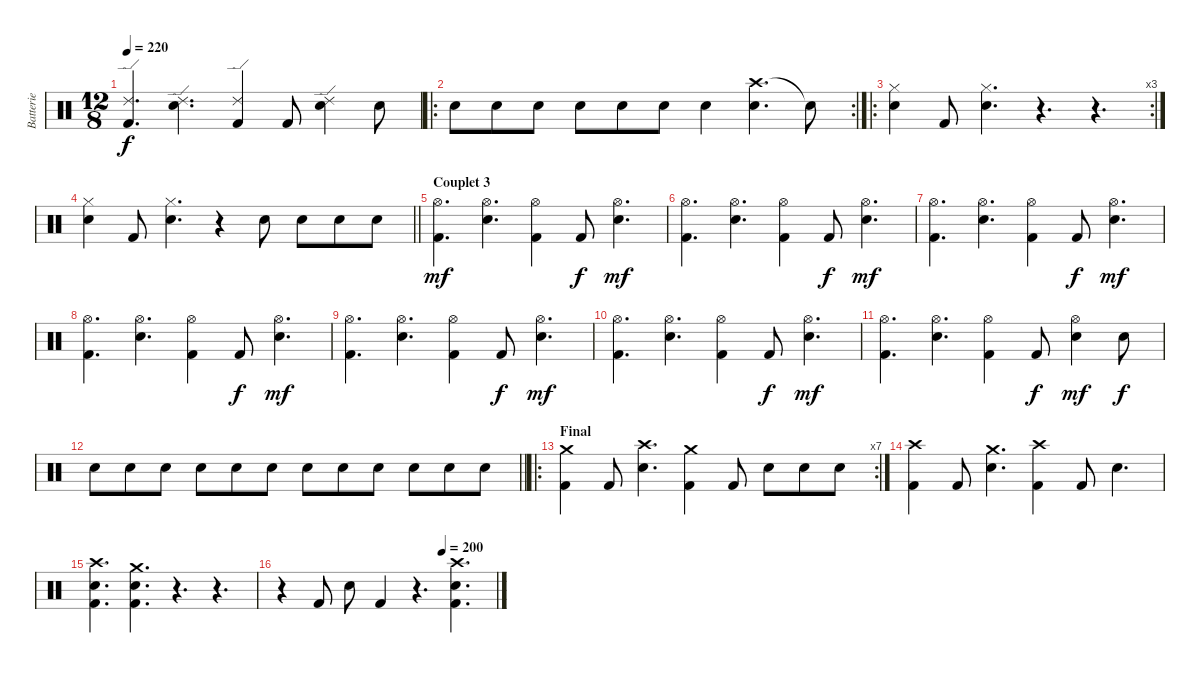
\track ("Batterie" "Batterie") {instrument percussion}
\staff {score}
\articulation defaults
\ts (12 8)
\tempo 220
\clef neutral
\ks c
("Ride (edge) 2" "Kick (hit) 2").4{d dy f} ("Ride (edge) 2" "Electric Snare (hit)").4{d} ("Ride (edge) 2" "Kick (hit) 2").4 "Kick (hit) 2".8 ("Ride (edge) 2" "Electric Snare (hit)").4 "Electric Snare (hit)".8 |
\ro
\rc 2 "Electric Snare (hit)".8 "Electric Snare (hit)".8 "Electric Snare (hit)".8 "Electric Snare (hit)".8 "Electric Snare (hit)".8 "Electric Snare (hit)".8 "Electric Snare (hit)".4
("Crash high (hit)" "Electric Snare (hit)").4{d} "Snare (hit)"{t}.8 |
\ro
\rc 3
("Hi-Hat (closed)" "Electric Snare (hit)").4 "Kick (hit) 2".8 ("Hi-Hat (closed)" "Electric Snare (hit)").4{d} r.4{d} r.4{d} |
\barLineRight lightlight
("Hi-Hat (closed)" "Electric Snare (hit)").4 "Kick (hit) 2".8 ("Hi-Hat (closed)" "Electric Snare (hit)").4{d} r.4 "Snare (hit) 2".8 "Electric Snare (hit)".8 "Electric Snare (hit)".8 "Electric Snare (hit)".8 |
\section ("" "Couplet 3")
("Hi-Hat (open)" "Kick (hit) 2").4{d dy mf} ("Hi-Hat (open)" "Electric Snare (hit)").4{d} ("Hi-Hat (open)" "Kick (hit) 2").4 "Kick (hit) 2".8{dy f} ("Hi-Hat (open)" "Electric Snare (hit)").4{d dy mf} |
("Hi-Hat (open)" "Kick (hit) 2").4{d} ("Hi-Hat (open)" "Electric Snare (hit)").4{d} ("Hi-Hat (open)" "Kick (hit) 2").4 "Kick (hit) 2".8{dy f} ("Hi-Hat (open)" "Electric Snare (hit)").4{d dy mf} |
("Hi-Hat (open)" "Kick (hit) 2").4{d} ("Hi-Hat (open)" "Electric Snare (hit)").4{d} ("Hi-Hat (open)" "Kick (hit) 2").4 "Kick (hit) 2".8{dy f} ("Hi-Hat (open)" "Electric Snare (hit)").4{d dy mf} |
("Hi-Hat (open)" "Kick (hit) 2").4{d} ("Hi-Hat (open)" "Electric Snare (hit)").4{d} ("Hi-Hat (open)" "Kick (hit) 2").4 "Kick (hit) 2".8{dy f} ("Hi-Hat (open)" "Electric Snare (hit)").4{d dy mf} |
("Hi-Hat (open)" "Kick (hit) 2").4{d} ("Hi-Hat (open)" "Electric Snare (hit)").4{d} ("Hi-Hat (open)" "Kick (hit) 2").4 "Kick (hit) 2".8{dy f} ("Hi-Hat (open)" "Electric Snare (hit)").4{d dy mf} |
("Hi-Hat (open)" "Kick (hit) 2").4{d} ("Hi-Hat (open)" "Electric Snare (hit)").4{d} ("Hi-Hat (open)" "Kick (hit) 2").4 "Kick (hit) 2".8{dy f} ("Hi-Hat (open)" "Electric Snare (hit)").4{d dy mf} |
("Hi-Hat (open)" "Kick (hit) 2").4{d} ("Hi-Hat (open)" "Electric Snare (hit)").4{d} ("Hi-Hat (open)" "Kick (hit) 2").4 "Kick (hit) 2".8{dy f} ("Hi-Hat (open)" "Electric Snare (hit)").4{dy mf} "Electric Snare (hit)".8{dy f} |
\barLineRight lightlight "Electric Snare (hit)".8 "Electric Snare (hit)".8 "Electric Snare (hit)".8 "Electric Snare (hit)".8 "Electric Snare (hit)".8 "Electric Snare (hit)".8 "Electric Snare (hit)".8 "Electric Snare (hit)".8 "Electric Snare (hit)".8 "Electric Snare (hit)".8 "Electric Snare (hit)".8 "Electric Snare (hit)".8
|
\ro
\rc 7
\section ("" "Final")
("Crash medium (hit)" "Kick (hit) 2").4 "Kick (hit) 2".8 ("Crash high (hit)" "Electric Snare (hit)").4{d} ("Crash medium (hit)" "Kick (hit) 2").4 "Kick (hit) 2".8 "Electric Snare (hit)".8 "Electric Snare (hit)".8 "Electric Snare (hit)".8 |
("Crash high (hit)" "Kick (hit) 2").4 "Kick (hit) 2".8 ("Crash medium (hit)" "Electric Snare (hit)").4{d} ("Crash high (hit)" "Kick (hit) 2").4 "Kick (hit) 2".8 "Electric Snare (hit)".4{d} |
("Crash high (hit)" "Electric Snare (hit)" "Kick (hit) 2").4{d} ("Crash medium (hit)" "Electric Snare (hit)" "Kick (hit) 2").4{d} r.4{d} r.4{d} |
\tempo (200 0.75)
r.4 "Kick (hit) 2".8 "Electric Snare (hit)".8 "Kick (hit) 2".4 r.4{d} ("Crash high (hit)" "Electric Snare (hit)" "Kick (hit) 2").4{d}
